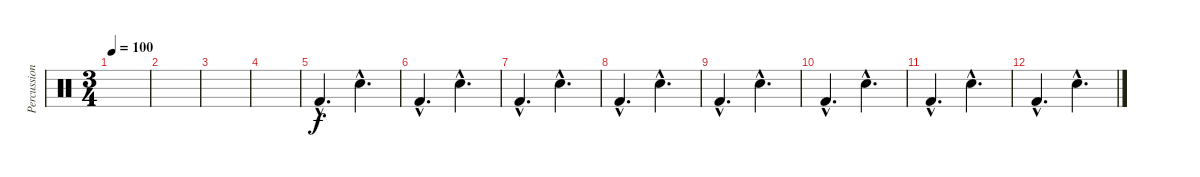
\track ("Percussions" "Percussion") {instrument percussion}
\staff {score}
\articulation defaults
\ts (3 4)
\tempo 100
\clef neutral
\ks c
|
|
|
|
"Kick (hit) 2"{hac}.4{d} "Electric Snare (hit)"{hac}.4{d} |
"Kick (hit) 2"{hac}.4{d} "Electric Snare (hit)"{hac}.4{d} |
"Kick (hit) 2"{hac}.4{d} "Electric Snare (hit)"{hac}.4{d} |
"Kick (hit) 2"{hac}.4{d} "Electric Snare (hit)"{hac}.4{d} |
"Kick (hit) 2"{hac}.4{d} "Electric Snare (hit)"{hac}.4{d} |
"Kick (hit) 2"{hac}.4{d} "Electric Snare (hit)"{hac}.4{d} |
"Kick (hit) 2"{hac}.4{d} "Electric Snare (hit)"{hac}.4{d} |
"Kick (hit) 2"{hac}.4{d} "Electric Snare (hit)"{hac}.4{d}
